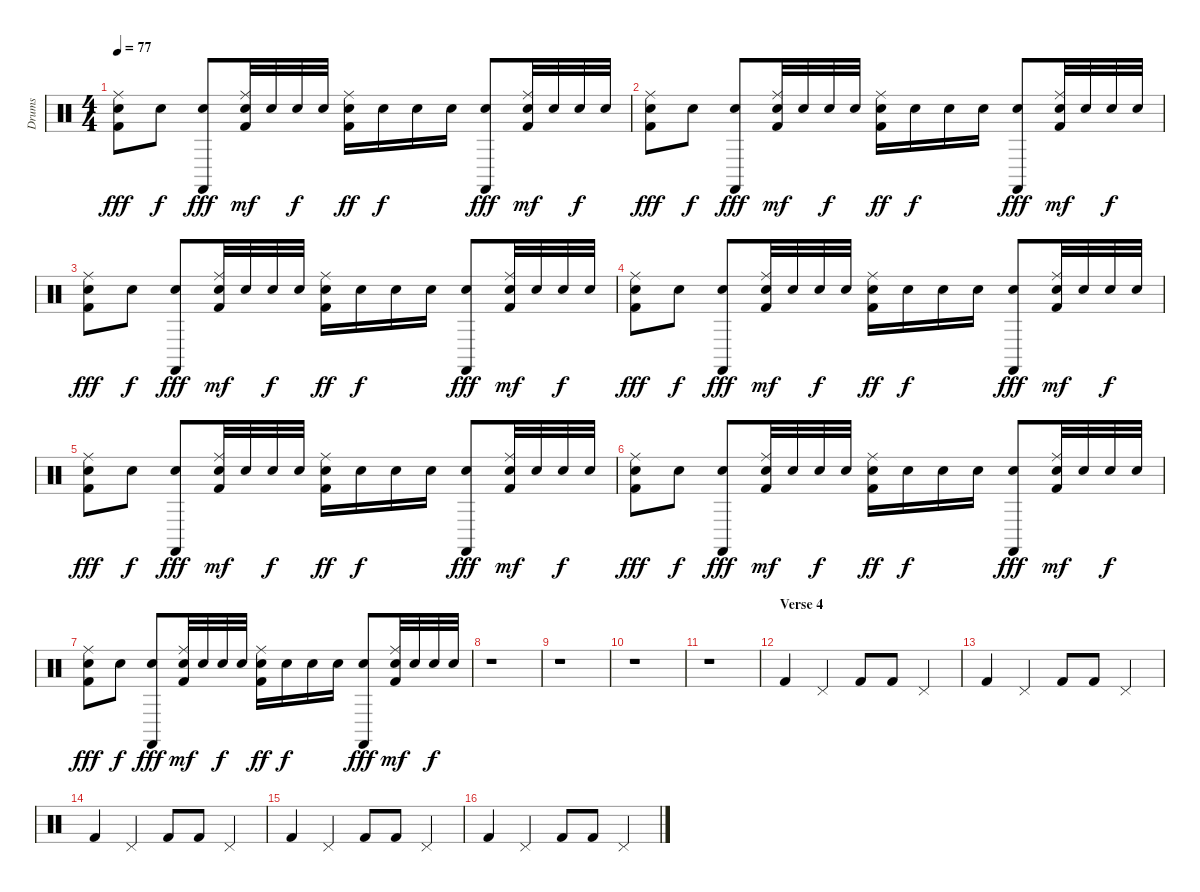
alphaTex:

\track ("Drums" "Drums") {instrument percussion}
\staff {score}
\articulation defaults
\ts (4 4)
\tempo 77
\clef neutral
\ks c
("Ride (middle)" "Snare (hit) 2" "Kick (hit) 2").8{dy fff} "Snare (hit) 2".8{dy f} ("Snare (hit) 2" "Castanets (hit)").8{dy fff} ("Ride (middle)" "Snare (hit) 2" "Kick (hit) 2").32{dy mf} "Snare (hit) 2".32 "Snare (hit) 2".32{dy f} "Snare (hit) 2".32 ("Ride (middle)" "Snare (hit) 2" "Kick (hit) 2").16{dy ff} "Snare (hit) 2".16{dy f} "Snare (hit) 2".16 "Snare (hit) 2".16 ("Snare (hit) 2" "Castanets (hit)").8{dy fff} ("Ride (middle)" "Snare (hit) 2" "Kick (hit) 2").32{dy mf} "Snare (hit) 2".32 "Snare (hit) 2".32{dy f} "Snare (hit) 2".32 |
("Ride (middle)" "Snare (hit) 2" "Kick (hit) 2").8{dy fff} "Snare (hit) 2".8{dy f} ("Snare (hit) 2" "Castanets (hit)").8{dy fff} ("Ride (middle)" "Snare (hit) 2" "Kick (hit) 2").32{dy mf} "Snare (hit) 2".32 "Snare (hit) 2".32{dy f} "Snare (hit) 2".32 ("Ride (middle)" "Snare (hit) 2" "Kick (hit) 2").16{dy ff} "Snare (hit) 2".16{dy f} "Snare (hit) 2".16 "Snare (hit) 2".16 ("Snare (hit) 2" "Castanets (hit)").8{dy fff} ("Ride (middle)" "Snare (hit) 2" "Kick (hit) 2").32{dy mf} "Snare (hit) 2".32 "Snare (hit) 2".32{dy f} "Snare (hit) 2".32 |
("Ride (middle)" "Snare (hit) 2" "Kick (hit) 2").8{dy fff} "Snare (hit) 2".8{dy f} ("Snare (hit) 2" "Castanets (hit)").8{dy fff} ("Ride (middle)" "Snare (hit) 2" "Kick (hit) 2").32{dy mf} "Snare (hit) 2".32 "Snare (hit) 2".32{dy f} "Snare (hit) 2".32 ("Ride (middle)" "Snare (hit) 2" "Kick (hit) 2").16{dy ff} "Snare (hit) 2".16{dy f} "Snare (hit) 2".16 "Snare (hit) 2".16 ("Snare (hit) 2" "Castanets (hit)").8{dy fff} ("Ride (middle)" "Snare (hit) 2" "Kick (hit) 2").32{dy mf} "Snare (hit) 2".32 "Snare (hit) 2".32{dy f} "Snare (hit) 2".32 |
("Ride (middle)" "Snare (hit) 2" "Kick (hit) 2").8{dy fff} "Snare (hit) 2".8{dy f} ("Snare (hit) 2" "Castanets (hit)").8{dy fff} ("Ride (middle)" "Snare (hit) 2" "Kick (hit) 2").32{dy mf} "Snare (hit) 2".32 "Snare (hit) 2".32{dy f} "Snare (hit) 2".32 ("Ride (middle)" "Snare (hit) 2" "Kick (hit) 2").16{dy ff} "Snare (hit) 2".16{dy f} "Snare (hit) 2".16 "Snare (hit) 2".16 ("Snare (hit) 2" "Castanets (hit)").8{dy fff} ("Ride (middle)" "Snare (hit) 2" "Kick (hit) 2").32{dy mf} "Snare (hit) 2".32 "Snare (hit) 2".32{dy f} "Snare (hit) 2".32 |
("Ride (middle)" "Snare (hit) 2" "Kick (hit) 2").8{dy fff} "Snare (hit) 2".8{dy f} ("Snare (hit) 2" "Castanets (hit)").8{dy fff} ("Ride (middle)" "Snare (hit) 2" "Kick (hit) 2").32{dy mf} "Snare (hit) 2".32 "Snare (hit) 2".32{dy f} "Snare (hit) 2".32 ("Ride (middle)" "Snare (hit) 2" "Kick (hit) 2").16{dy ff} "Snare (hit) 2".16{dy f} "Snare (hit) 2".16 "Snare (hit) 2".16 ("Snare (hit) 2" "Castanets (hit)").8{dy fff} ("Ride (middle)" "Snare (hit) 2" "Kick (hit) 2").32{dy mf} "Snare (hit) 2".32 "Snare (hit) 2".32{dy f} "Snare (hit) 2".32 |
("Ride (middle)" "Snare (hit) 2" "Kick (hit) 2").8{dy fff} "Snare (hit) 2".8{dy f} ("Snare (hit) 2" "Castanets (hit)").8{dy fff} ("Ride (middle)" "Snare (hit) 2" "Kick (hit) 2").32{dy mf} "Snare (hit) 2".32 "Snare (hit) 2".32{dy f} "Snare (hit) 2".32 ("Ride (middle)" "Snare (hit) 2" "Kick (hit) 2").16{dy ff} "Snare (hit) 2".16{dy f} "Snare (hit) 2".16 "Snare (hit) 2".16 ("Snare (hit) 2" "Castanets (hit)").8{dy fff} ("Ride (middle)" "Snare (hit) 2" "Kick (hit) 2").32{dy mf} "Snare (hit) 2".32 "Snare (hit) 2".32{dy f} "Snare (hit) 2".32 |
("Ride (middle)" "Snare (hit) 2" "Kick (hit) 2").8{dy fff} "Snare (hit) 2".8{dy f} ("Snare (hit) 2" "Castanets (hit)").8{dy fff} ("Ride (middle)" "Snare (hit) 2" "Kick (hit) 2").32{dy mf} "Snare (hit) 2".32 "Snare (hit) 2".32{dy f} "Snare (hit) 2".32 ("Ride (middle)" "Snare (hit) 2" "Kick (hit) 2").16{dy ff} "Snare (hit) 2".16{dy f} "Snare (hit) 2".16 "Snare (hit) 2".16 ("Snare (hit) 2" "Castanets (hit)").8{dy fff} ("Ride (middle)" "Snare (hit) 2" "Kick (hit) 2").32{dy mf} "Snare (hit) 2".32 "Snare (hit) 2".32{dy f} "Snare (hit) 2".32 |
r.1 |
r.1 |
r.1 |
r.1 |
\section ("" "Verse 4")
"Kick (hit) 2".4 "Pedal Hi-Hat (hit)".4 "Kick (hit) 2".8 "Kick (hit) 2".8 "Pedal Hi-Hat (hit)".4 |
"Kick (hit) 2".4 "Pedal Hi-Hat (hit)".4 "Kick (hit) 2".8 "Kick (hit) 2".8 "Pedal Hi-Hat (hit)".4 |
"Kick (hit) 2".4 "Pedal Hi-Hat (hit)".4 "Kick (hit) 2".8 "Kick (hit) 2".8 "Pedal Hi-Hat (hit)".4 |
"Kick (hit) 2".4 "Pedal Hi-Hat (hit)".4 "Kick (hit) 2".8 "Kick (hit) 2".8 "Pedal Hi-Hat (hit)".4 |
"Kick (hit) 2".4 "Pedal Hi-Hat (hit)".4 "Kick (hit) 2".8 "Kick (hit) 2".8 "Pedal Hi-Hat (hit)".4
